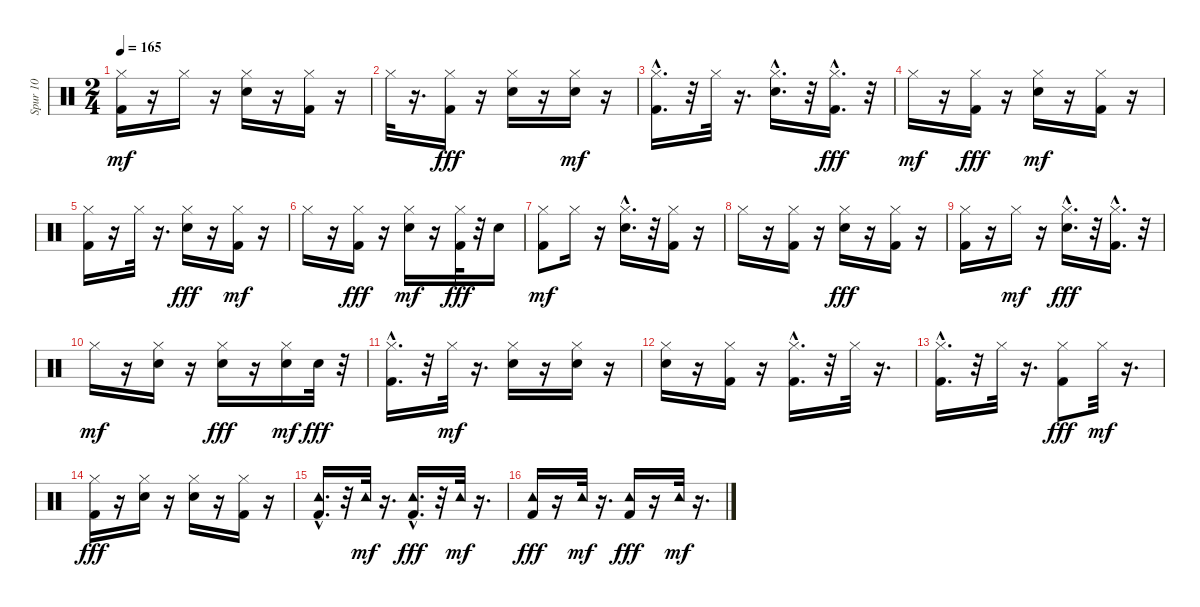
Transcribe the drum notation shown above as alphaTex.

\track ("Spur 10" "Spur 10") {instrument percussion}
\staff {score}
\articulation defaults
\ts (2 4)
\tempo 165
\clef neutral
\ks c
("Kick (hit) 2" "Hi-Hat (closed)").16{dy mf} r.16 "Hi-Hat (closed)".16 r.16 ("Electric Snare (hit)" "Hi-Hat (closed)").16 r.16 ("Kick (hit) 2" "Hi-Hat (closed)").16 r.16 |
"Hi-Hat (closed)".32 r.16{d} ("Hi-Hat (closed)" "Kick (hit) 2").16{dy fff} r.16 ("Hi-Hat (closed)" "Electric Snare (hit)").16 r.16 ("Electric Snare (hit)" "Hi-Hat (closed)").16{dy mf} r.16 |
("Kick (hit) 2"{hac} "Hi-Hat (closed)").16{d} r.32 "Hi-Hat (closed)".32 r.16{d} ("Electric Snare (hit)"{hac} "Hi-Hat (closed)").16{d} r.32 ("Hi-Hat (closed)" "Kick (hit) 2"{hac}).16{d dy fff} r.32 |
"Hi-Hat (closed)".16{dy mf} r.16 ("Hi-Hat (closed)" "Kick (hit) 2").16{dy fff} r.16 ("Electric Snare (hit)" "Hi-Hat (closed)").16{dy mf} r.16 ("Kick (hit) 2" "Hi-Hat (closed)").16 r.16 |
("Kick (hit) 2" "Hi-Hat (closed)").16 r.16 "Hi-Hat (closed)".32 r.16{d} ("Hi-Hat (closed)" "Electric Snare (hit)").16{dy fff} r.16 ("Kick (hit) 2" "Hi-Hat (closed)").16{dy mf} r.16 |
"Hi-Hat (closed)".16 r.16 ("Hi-Hat (closed)" "Kick (hit) 2").16{dy fff} r.16 ("Electric Snare (hit)" "Hi-Hat (closed)").16{dy mf} r.16 ("Hi-Hat (closed)" "Kick (hit) 2").32{dy fff} r.32 "Electric Snare (hit)".16 |
("Kick (hit) 2" "Hi-Hat (closed)").8{dy mf} "Hi-Hat (closed)".16 r.16 ("Electric Snare (hit)"{hac} "Hi-Hat (closed)").16{d} r.32 ("Kick (hit) 2" "Hi-Hat (closed)").16 r.16 |
"Hi-Hat (closed)".16 r.16 ("Kick (hit) 2" "Hi-Hat (closed)").16 r.16 ("Hi-Hat (closed)" "Electric Snare (hit)").16{dy fff} r.16 ("Hi-Hat (closed)" "Kick (hit) 2").16 r.16 |
("Hi-Hat (closed)" "Kick (hit) 2").16 r.16 "Hi-Hat (closed)".16{dy mf} r.16 ("Hi-Hat (closed)" "Electric Snare (hit)"{hac}).16{d dy fff} r.32 ("Hi-Hat (closed)" "Kick (hit) 2"{hac}).16{d} r.32 |
"Hi-Hat (closed)".16{dy mf} r.16 ("Electric Snare (hit)" "Hi-Hat (closed)").16 r.16 ("Hi-Hat (closed)" "Electric Snare (hit)").16{dy fff} r.16 ("Electric Snare (hit)" "Hi-Hat (closed)").16{dy mf} "Electric Snare (hit)".32{dy fff} r.32 |
("Hi-Hat (closed)" "Kick (hit) 2"{hac}).16{d} r.32 "Hi-Hat (closed)".32{dy mf} r.16{d} ("Electric Snare (hit)" "Hi-Hat (closed)").16 r.16 ("Electric Snare (hit)" "Hi-Hat (closed)").16 r.16 |
("Electric Snare (hit)" "Hi-Hat (closed)").16 r.16 ("Kick (hit) 2" "Hi-Hat (closed)").16 r.16 ("Kick (hit) 2"{hac} "Hi-Hat (closed)").16{d} r.32 "Hi-Hat (closed)".32 r.16{d} |
("Kick (hit) 2"{hac} "Hi-Hat (closed)").16{d} r.32 "Hi-Hat (closed)".32 r.16{d} ("Hi-Hat (closed)" "Kick (hit) 2").8{dy fff} "Hi-Hat (closed)".32{dy mf} r.16{d} |
("Hi-Hat (closed)" "Kick (hit) 2").16{dy fff} r.16 ("Hi-Hat (closed)" "Electric Snare (hit)").16 r.16 ("Hi-Hat (closed)" "Electric Snare (hit)").16 r.16 ("Hi-Hat (closed)" "Kick (hit) 2").16 r.16 |
("Tambourine (hit)" "Kick (hit) 2"{hac}).16{d} r.32 "Tambourine (hit)".32{dy mf} r.16{d} ("Tambourine (hit)" "Kick (hit) 2"{hac}).16{d dy fff} r.32 "Tambourine (hit)".32{dy mf} r.16{d} |
("Tambourine (hit)" "Kick (hit) 2").16{dy fff} r.16 "Tambourine (hit)".32{dy mf} r.16{d} ("Tambourine (hit)" "Kick (hit) 2").16{dy fff} r.16 "Tambourine (hit)".32{dy mf} r.16{d}
